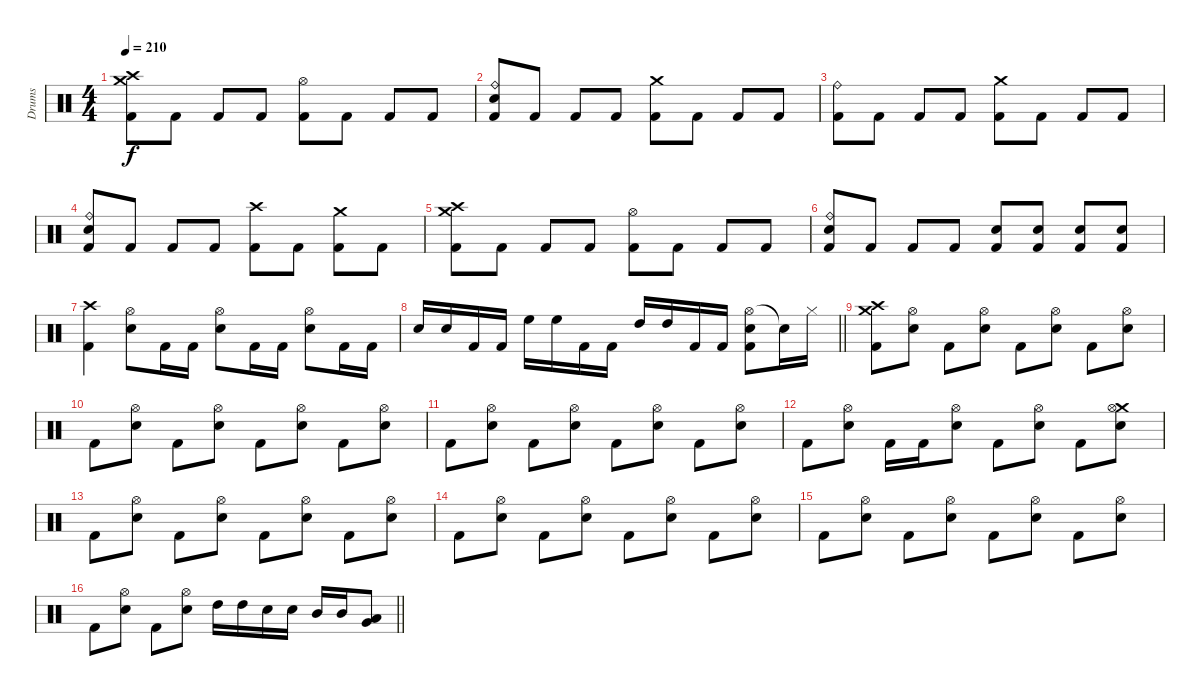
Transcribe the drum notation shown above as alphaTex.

\track ("Drums" "Drums") {instrument percussion}
\staff {score}
\articulation defaults
\ts (4 4)
\tempo 210
\clef neutral
\ks c
("Crash high (hit)" "Crash medium (hit)" "Kick (hit) 2").8{dy f} "Kick (hit) 2".8 "Kick (hit) 2".8 "Kick (hit) 2".8 ("Hi-Hat (open)" "Kick (hit) 2").8 "Kick (hit) 2".8 "Kick (hit) 2".8 "Kick (hit) 2".8 |
("Ride (bell)" "Electric Snare (hit)" "Kick (hit) 2").8 "Kick (hit) 2".8 "Kick (hit) 2".8 "Kick (hit) 2".8 ("Crash medium (hit)" "Kick (hit) 2").8 "Kick (hit) 2".8 "Kick (hit) 2".8 "Kick (hit) 2".8 |
("Ride (bell)" "Kick (hit) 2").8 "Kick (hit) 2".8 "Kick (hit) 2".8 "Kick (hit) 2".8 ("Crash medium (hit)" "Kick (hit) 2").8 "Kick (hit) 2".8 "Kick (hit) 2".8 "Kick (hit) 2".8 |
("Ride (bell)" "Electric Snare (hit)" "Kick (hit) 2").8 "Kick (hit) 2".8 "Kick (hit) 2".8 "Kick (hit) 2".8 ("Crash high (hit)" "Kick (hit) 2").8 "Kick (hit) 2".8 ("Crash medium (hit)" "Kick (hit) 2").8 "Kick (hit) 2".8 |
("Crash high (hit)" "Crash medium (hit)" "Kick (hit) 2").8 "Kick (hit) 2".8 "Kick (hit) 2".8 "Kick (hit) 2".8 ("Hi-Hat (open)" "Kick (hit) 2").8 "Kick (hit) 2".8 "Kick (hit) 2".8 "Kick (hit) 2".8 |
("Ride (bell)" "Electric Snare (hit)" "Kick (hit) 2").8 "Kick (hit) 2".8 "Kick (hit) 2".8 "Kick (hit) 2".8 ("Electric Snare (hit)" "Kick (hit) 2").8 ("Electric Snare (hit)" "Kick (hit) 2").8 ("Electric Snare (hit)" "Kick (hit) 2").8 ("Electric Snare (hit)" "Kick (hit) 2").8 |
("Crash high (hit)" "Kick (hit) 2").4 ("Hi-Hat (open)" "Electric Snare (hit)").8 "Kick (hit) 2".16 "Kick (hit) 2".16 ("Hi-Hat (open)" "Electric Snare (hit)").8 "Kick (hit) 2".16 "Kick (hit) 2".16 ("Hi-Hat (open)" "Electric Snare (hit)").8 "Kick (hit) 2".16 "Kick (hit) 2".16 |
\barLineRight lightlight "Electric Snare (hit)".16 "Electric Snare (hit)".16 "Kick (hit) 2".16 "Kick (hit) 2".16 "High Floor Tom (hit)".16 "High Floor Tom (hit)".16 "Kick (hit) 2".16 "Kick (hit) 2".16 "High Tom (hit)".16 "High Tom (hit)".16 "Kick (hit) 2".16 "Kick (hit) 2".16
("Hi-Hat (open)" "Electric Snare (hit)" "Kick (hit) 2").8 "Snare (hit)"{t}.16 "Hi-Hat (closed)".16{volume 0} |
("Crash high (hit)" "Crash medium (hit)" "Kick (hit) 2").8{volume 15} ("Hi-Hat (open)" "Electric Snare (hit)").8 "Kick (hit) 2".8 ("Hi-Hat (open)" "Electric Snare (hit)").8 "Kick (hit) 2".8 ("Hi-Hat (open)" "Electric Snare (hit)").8 "Kick (hit) 2".8 ("Hi-Hat (open)" "Electric Snare (hit)").8 |
"Kick (hit) 2".8 ("Hi-Hat (open)" "Electric Snare (hit)").8 "Kick (hit) 2".8 ("Hi-Hat (open)" "Electric Snare (hit)").8 "Kick (hit) 2".8 ("Hi-Hat (open)" "Electric Snare (hit)").8 "Kick (hit) 2".8 ("Hi-Hat (open)" "Electric Snare (hit)").8 |
"Kick (hit) 2".8 ("Hi-Hat (open)" "Electric Snare (hit)").8 "Kick (hit) 2".8 ("Hi-Hat (open)" "Electric Snare (hit)").8 "Kick (hit) 2".8 ("Hi-Hat (open)" "Electric Snare (hit)").8 "Kick (hit) 2".8 ("Hi-Hat (open)" "Electric Snare (hit)").8 |
"Kick (hit) 2".8 ("Hi-Hat (open)" "Electric Snare (hit)").8 "Kick (hit) 2".16 "Kick (hit) 2".16 ("Hi-Hat (open)" "Electric Snare (hit)").8 "Kick (hit) 2".8 ("Hi-Hat (open)" "Electric Snare (hit)").8 "Kick (hit) 2".8 ("Crash medium (hit)" "Hi-Hat (open)" "Electric Snare (hit)").8 |
"Kick (hit) 2".8 ("Hi-Hat (open)" "Electric Snare (hit)").8 "Kick (hit) 2".8 ("Hi-Hat (open)" "Electric Snare (hit)").8 "Kick (hit) 2".8 ("Hi-Hat (open)" "Electric Snare (hit)").8 "Kick (hit) 2".8 ("Hi-Hat (open)" "Electric Snare (hit)").8 |
"Kick (hit) 2".8 ("Hi-Hat (open)" "Electric Snare (hit)").8 "Kick (hit) 2".8 ("Hi-Hat (open)" "Electric Snare (hit)").8 "Kick (hit) 2".8 ("Hi-Hat (open)" "Electric Snare (hit)").8 "Kick (hit) 2".8 ("Hi-Hat (open)" "Electric Snare (hit)").8 |
"Kick (hit) 2".8 ("Hi-Hat (open)" "Electric Snare (hit)").8 "Kick (hit) 2".8 ("Hi-Hat (open)" "Electric Snare (hit)").8 "Kick (hit) 2".8 ("Hi-Hat (open)" "Electric Snare (hit)").8 "Kick (hit) 2".8 ("Hi-Hat (open)" "Electric Snare (hit)").8 |
\barLineRight lightlight "Kick (hit) 2".8
("Hi-Hat (open)" "Electric Snare (hit)").8 "Kick (hit) 2".8 ("Hi-Hat (open)" "Electric Snare (hit)").8 "High Tom (hit)".16 "High Tom (hit)".16 "Electric Snare (hit)".16 "Electric Snare (hit)".16 "Mid Tom (hit)".16 "Mid Tom (hit)".16 ("Low Tom (hit)" "Very Low Tom (hit)").8
